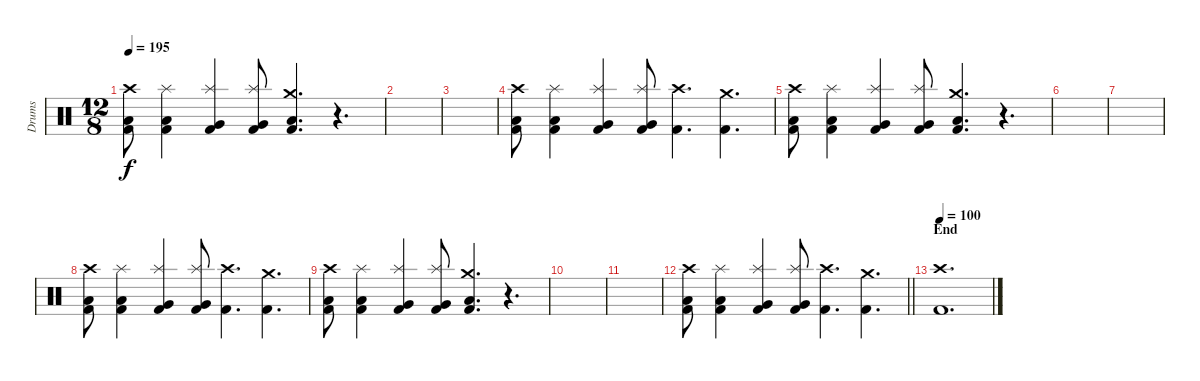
\track ("Drums" "Drums") {instrument percussion}
\staff {score}
\articulation defaults
\ts (12 8)
\tempo 195
\clef neutral
\ks c
("Crash high (hit)" "Low Tom (hit)" "Kick (hit) 2").8{dy f} ("Splash (hit)" "Low Tom (hit)" "Kick (hit) 2").4 ("Splash (hit)" "Very Low Tom (hit)" "Kick (hit) 2").4 ("Splash (hit)" "Very Low Tom (hit)" "Kick (hit) 2").8 ("Crash medium (hit)" "Low Floor Tom (hit)" "Kick (hit) 2").4{d} r.4{d} |
|
|
("Crash high (hit)" "Low Tom (hit)" "Kick (hit) 2").8 ("Splash (hit)" "Low Tom (hit)" "Kick (hit) 2").4 ("Splash (hit)" "Very Low Tom (hit)" "Kick (hit) 2").4 ("Splash (hit)" "Very Low Tom (hit)" "Kick (hit) 2").8 ("Crash high (hit)" "Kick (hit) 2").4{d} ("Crash medium (hit)" "Kick (hit) 2").4{d} |
("Crash high (hit)" "Low Tom (hit)" "Kick (hit) 2").8 ("Splash (hit)" "Low Tom (hit)" "Kick (hit) 2").4 ("Splash (hit)" "Very Low Tom (hit)" "Kick (hit) 2").4 ("Splash (hit)" "Very Low Tom (hit)" "Kick (hit) 2").8 ("Crash medium (hit)" "Low Floor Tom (hit)" "Kick (hit) 2").4{d} r.4{d} |
|
|
("Crash high (hit)" "Low Tom (hit)" "Kick (hit) 2").8 ("Splash (hit)" "Low Tom (hit)" "Kick (hit) 2").4 ("Splash (hit)" "Very Low Tom (hit)" "Kick (hit) 2").4 ("Splash (hit)" "Very Low Tom (hit)" "Kick (hit) 2").8 ("Crash high (hit)" "Kick (hit) 2").4{d} ("Crash medium (hit)" "Kick (hit) 2").4{d} |
("Crash high (hit)" "Low Tom (hit)" "Kick (hit) 2").8 ("Splash (hit)" "Low Tom (hit)" "Kick (hit) 2").4 ("Splash (hit)" "Very Low Tom (hit)" "Kick (hit) 2").4 ("Splash (hit)" "Very Low Tom (hit)" "Kick (hit) 2").8 ("Crash medium (hit)" "Low Floor Tom (hit)" "Kick (hit) 2").4{d} r.4{d} |
|
|
\barLineRight lightlight
("Crash high (hit)" "Low Tom (hit)" "Kick (hit) 2").8 ("Splash (hit)" "Low Tom (hit)" "Kick (hit) 2").4 ("Splash (hit)" "Very Low Tom (hit)" "Kick (hit) 2").4 ("Splash (hit)" "Very Low Tom (hit)" "Kick (hit) 2").8 ("Crash high (hit)" "Kick (hit) 2").4{d} ("Crash medium (hit)" "Kick (hit) 2").4{d} |
\section ("" "End")
\tempo 100
("Crash high (hit)" "Kick (hit) 2").1{d}
